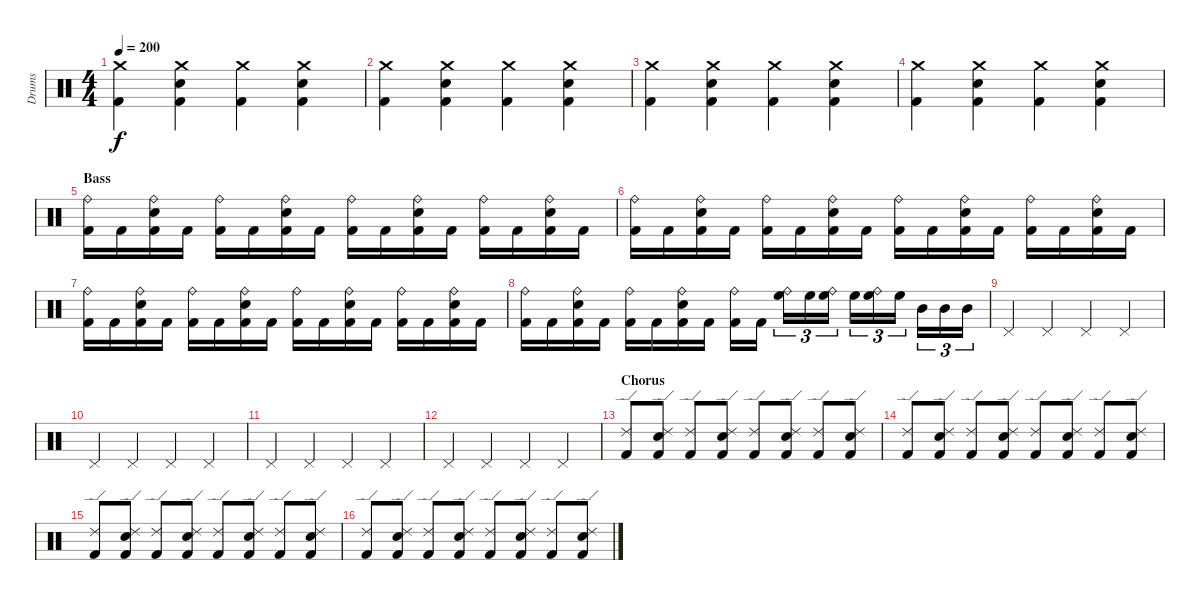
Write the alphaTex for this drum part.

\track ("Drums" "Drums") {instrument percussion}
\staff {score}
\articulation defaults
\ts (4 4)
\tempo 200
\clef neutral
\ks c
("Crash medium (hit)" "Kick (hit) 2").4{dy f} ("Crash medium (hit)" "Snare (hit) 2" "Kick (hit) 2").4 ("Crash medium (hit)" "Kick (hit) 2").4 ("Crash medium (hit)" "Snare (hit) 2" "Kick (hit) 2").4 |
("Crash medium (hit)" "Kick (hit) 2").4 ("Crash medium (hit)" "Snare (hit) 2" "Kick (hit) 2").4 ("Crash medium (hit)" "Kick (hit) 2").4 ("Crash medium (hit)" "Snare (hit) 2" "Kick (hit) 2").4 |
("Crash medium (hit)" "Kick (hit) 2").4 ("Crash medium (hit)" "Snare (hit) 2" "Kick (hit) 2").4 ("Crash medium (hit)" "Kick (hit) 2").4 ("Crash medium (hit)" "Snare (hit) 2" "Kick (hit) 2").4 |
("Crash medium (hit)" "Kick (hit) 2").4 ("Crash medium (hit)" "Snare (hit) 2" "Kick (hit) 2").4 ("Crash medium (hit)" "Kick (hit) 2").4 ("Crash medium (hit)" "Snare (hit) 2" "Kick (hit) 2").4 |
\section ("" "Bass")
("Ride (bell)" "Kick (hit) 2").16 "Kick (hit) 2".16 ("Ride (bell)" "Snare (hit) 2" "Kick (hit) 2").16 "Kick (hit) 2".16 ("Ride (bell)" "Kick (hit) 2").16 "Kick (hit) 2".16 ("Ride (bell)" "Snare (hit) 2" "Kick (hit) 2").16 "Kick (hit) 2".16 ("Ride (bell)" "Kick (hit) 2").16 "Kick (hit) 2".16 ("Ride (bell)" "Snare (hit) 2" "Kick (hit) 2").16 "Kick (hit) 2".16 ("Ride (bell)" "Kick (hit) 2").16 "Kick (hit) 2".16 ("Ride (bell)" "Snare (hit) 2" "Kick (hit) 2").16 "Kick (hit) 2".16 |
("Ride (bell)" "Kick (hit) 2").16 "Kick (hit) 2".16 ("Ride (bell)" "Snare (hit) 2" "Kick (hit) 2").16 "Kick (hit) 2".16 ("Ride (bell)" "Kick (hit) 2").16 "Kick (hit) 2".16 ("Ride (bell)" "Snare (hit) 2" "Kick (hit) 2").16 "Kick (hit) 2".16 ("Ride (bell)" "Kick (hit) 2").16 "Kick (hit) 2".16 ("Ride (bell)" "Snare (hit) 2" "Kick (hit) 2").16 "Kick (hit) 2".16 ("Ride (bell)" "Kick (hit) 2").16 "Kick (hit) 2".16 ("Ride (bell)" "Snare (hit) 2" "Kick (hit) 2").16 "Kick (hit) 2".16 |
("Ride (bell)" "Kick (hit) 2").16 "Kick (hit) 2".16 ("Ride (bell)" "Snare (hit) 2" "Kick (hit) 2").16 "Kick (hit) 2".16 ("Ride (bell)" "Kick (hit) 2").16 "Kick (hit) 2".16 ("Ride (bell)" "Snare (hit) 2" "Kick (hit) 2").16 "Kick (hit) 2".16 ("Ride (bell)" "Kick (hit) 2").16 "Kick (hit) 2".16 ("Ride (bell)" "Snare (hit) 2" "Kick (hit) 2").16 "Kick (hit) 2".16 ("Ride (bell)" "Kick (hit) 2").16 "Kick (hit) 2".16 ("Ride (bell)" "Snare (hit) 2" "Kick (hit) 2").16 "Kick (hit) 2".16 |
("Ride (bell)" "Kick (hit) 2").16 "Kick (hit) 2".16 ("Ride (bell)" "Snare (hit) 2" "Kick (hit) 2").16 "Kick (hit) 2".16 ("Ride (bell)" "Kick (hit) 2").16 "Kick (hit) 2".16 ("Ride (bell)" "Snare (hit) 2" "Kick (hit) 2").16 "Kick (hit) 2".16 ("Ride (bell)" "Kick (hit) 2").16 "Kick (hit) 2".16 ("Ride (bell)" "High Floor Tom (hit)").16{tu (3 2)} "High Floor Tom (hit)".16{tu (3 2)} ("Ride (bell)" "High Floor Tom (hit)").16{tu (3 2)} "High Floor Tom (hit)".16{tu (3 2)} ("Ride (bell)" "High Floor Tom (hit)").16{tu (3 2)} "High Floor Tom (hit)".16{tu (3 2)} "Mid Tom (hit)".16{tu (3 2)} "Mid Tom (hit)".16{tu (3 2)} "Mid Tom (hit)".16{tu (3 2)} |
"Pedal Hi-Hat (hit)".4 "Pedal Hi-Hat (hit)".4 "Pedal Hi-Hat (hit)".4 "Pedal Hi-Hat (hit)".4 |
"Pedal Hi-Hat (hit)".4 "Pedal Hi-Hat (hit)".4 "Pedal Hi-Hat (hit)".4 "Pedal Hi-Hat (hit)".4 |
"Pedal Hi-Hat (hit)".4 "Pedal Hi-Hat (hit)".4 "Pedal Hi-Hat (hit)".4 "Pedal Hi-Hat (hit)".4 |
"Pedal Hi-Hat (hit)".4 "Pedal Hi-Hat (hit)".4 "Pedal Hi-Hat (hit)".4 "Pedal Hi-Hat (hit)".4 |
\section ("" "Chorus")
("Ride (edge) 2" "Kick (hit) 2").8 ("Ride (edge) 2" "Snare (hit) 2" "Kick (hit) 2").8 ("Ride (edge) 2" "Kick (hit) 2").8 ("Ride (edge) 2" "Snare (hit) 2" "Kick (hit) 2").8 ("Ride (edge) 2" "Kick (hit) 2").8 ("Ride (edge) 2" "Snare (hit) 2" "Kick (hit) 2").8 ("Ride (edge) 2" "Kick (hit) 2").8 ("Ride (edge) 2" "Snare (hit) 2" "Kick (hit) 2").8 |
("Ride (edge) 2" "Kick (hit) 2").8 ("Ride (edge) 2" "Snare (hit) 2" "Kick (hit) 2").8 ("Ride (edge) 2" "Kick (hit) 2").8 ("Ride (edge) 2" "Snare (hit) 2" "Kick (hit) 2").8 ("Ride (edge) 2" "Kick (hit) 2").8 ("Ride (edge) 2" "Snare (hit) 2" "Kick (hit) 2").8 ("Ride (edge) 2" "Kick (hit) 2").8 ("Ride (edge) 2" "Snare (hit) 2" "Kick (hit) 2").8 |
("Ride (edge) 2" "Kick (hit) 2").8 ("Ride (edge) 2" "Snare (hit) 2" "Kick (hit) 2").8 ("Ride (edge) 2" "Kick (hit) 2").8 ("Ride (edge) 2" "Snare (hit) 2" "Kick (hit) 2").8 ("Ride (edge) 2" "Kick (hit) 2").8 ("Ride (edge) 2" "Snare (hit) 2" "Kick (hit) 2").8 ("Ride (edge) 2" "Kick (hit) 2").8 ("Ride (edge) 2" "Snare (hit) 2" "Kick (hit) 2").8 |
("Ride (edge) 2" "Kick (hit) 2").8 ("Ride (edge) 2" "Snare (hit) 2" "Kick (hit) 2").8 ("Ride (edge) 2" "Kick (hit) 2").8 ("Ride (edge) 2" "Snare (hit) 2" "Kick (hit) 2").8 ("Ride (edge) 2" "Kick (hit) 2").8 ("Ride (edge) 2" "Snare (hit) 2" "Kick (hit) 2").8 ("Ride (edge) 2" "Kick (hit) 2").8 ("Ride (edge) 2" "Snare (hit) 2" "Kick (hit) 2").8
